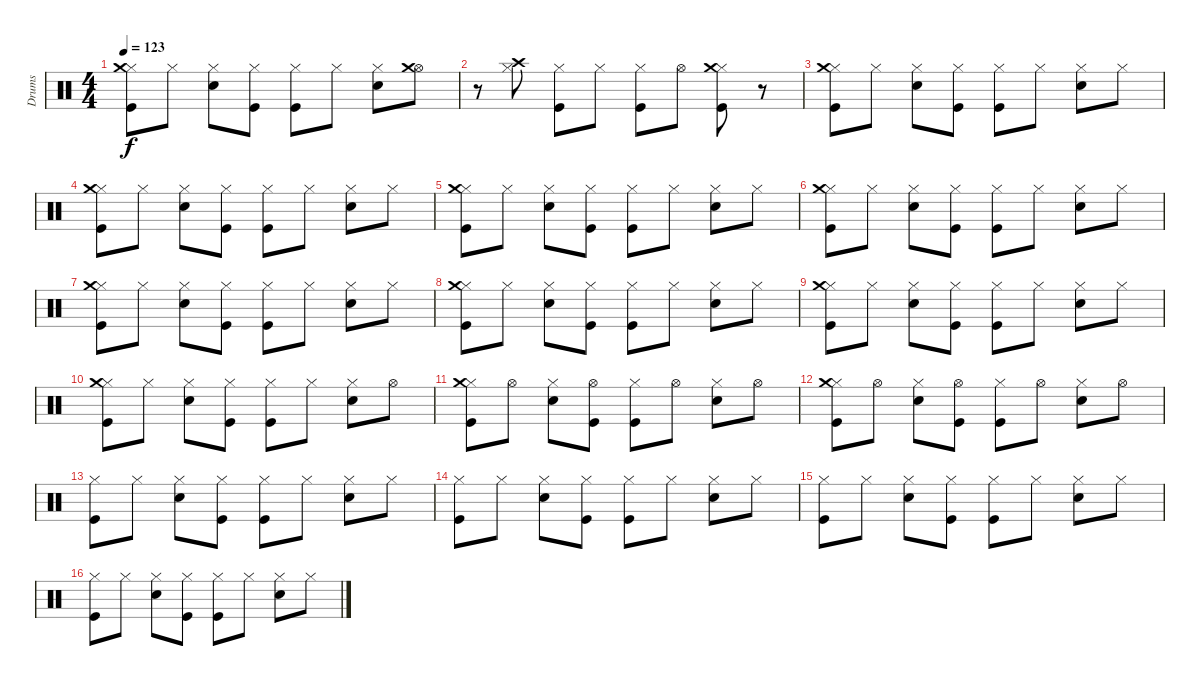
\track ("Drums" "Drums") {instrument percussion}
\staff {score}
\articulation defaults
\ts (4 4)
\tempo 123
\clef neutral
\ks c
("Hi-Hat (closed)" "Crash medium (hit)" "Kick (hit)").8{dy f} "Hi-Hat (closed)".8 ("Hi-Hat (closed)" "Snare (hit) 2").8 ("Hi-Hat (closed)" "Kick (hit)").8 ("Hi-Hat (closed)" "Kick (hit)").8 "Hi-Hat (closed)".8 ("Hi-Hat (closed)" "Snare (hit) 2").8 ("Hi-Hat (open)" "Crash medium (hit)").8 |
r.8 ("Hi-Hat (closed)" "Crash high (hit)").8 ("Hi-Hat (closed)" "Kick (hit)").8 "Hi-Hat (closed)".8 ("Hi-Hat (closed)" "Kick (hit)").8 "Hi-Hat (open)".8 ("Hi-Hat (closed)" "Crash medium (hit)" "Kick (hit)").8 r.8 |
("Hi-Hat (closed)" "Crash medium (hit)" "Kick (hit)").8 "Hi-Hat (closed)".8 ("Hi-Hat (closed)" "Snare (hit) 2").8 ("Hi-Hat (closed)" "Kick (hit)").8 ("Hi-Hat (closed)" "Kick (hit)").8 "Hi-Hat (closed)".8 ("Hi-Hat (closed)" "Snare (hit) 2").8 "Hi-Hat (closed)".8 |
("Hi-Hat (closed)" "Crash medium (hit)" "Kick (hit)").8 "Hi-Hat (closed)".8 ("Hi-Hat (closed)" "Snare (hit) 2").8 ("Hi-Hat (closed)" "Kick (hit)").8 ("Hi-Hat (closed)" "Kick (hit)").8 "Hi-Hat (closed)".8 ("Hi-Hat (closed)" "Snare (hit) 2").8 "Hi-Hat (closed)".8 |
("Hi-Hat (closed)" "Crash medium (hit)" "Kick (hit)").8 "Hi-Hat (closed)".8 ("Hi-Hat (closed)" "Snare (hit) 2").8 ("Hi-Hat (closed)" "Kick (hit)").8 ("Hi-Hat (closed)" "Kick (hit)").8 "Hi-Hat (closed)".8 ("Hi-Hat (closed)" "Snare (hit) 2").8 "Hi-Hat (closed)".8 |
("Hi-Hat (closed)" "Crash medium (hit)" "Kick (hit)").8 "Hi-Hat (closed)".8 ("Hi-Hat (closed)" "Snare (hit) 2").8 ("Hi-Hat (closed)" "Kick (hit)").8 ("Hi-Hat (closed)" "Kick (hit)").8 "Hi-Hat (closed)".8 ("Hi-Hat (closed)" "Snare (hit) 2").8 "Hi-Hat (closed)".8 |
("Hi-Hat (closed)" "Crash medium (hit)" "Kick (hit)").8 "Hi-Hat (closed)".8 ("Hi-Hat (closed)" "Snare (hit) 2").8 ("Hi-Hat (closed)" "Kick (hit)").8 ("Hi-Hat (closed)" "Kick (hit)").8 "Hi-Hat (closed)".8 ("Hi-Hat (closed)" "Snare (hit) 2").8 "Hi-Hat (closed)".8 |
("Hi-Hat (closed)" "Crash medium (hit)" "Kick (hit)").8 "Hi-Hat (closed)".8 ("Hi-Hat (closed)" "Snare (hit) 2").8 ("Hi-Hat (closed)" "Kick (hit)").8 ("Hi-Hat (closed)" "Kick (hit)").8 "Hi-Hat (closed)".8 ("Hi-Hat (closed)" "Snare (hit) 2").8 "Hi-Hat (closed)".8 |
("Hi-Hat (closed)" "Crash medium (hit)" "Kick (hit)").8 "Hi-Hat (closed)".8 ("Hi-Hat (closed)" "Snare (hit) 2").8 ("Hi-Hat (closed)" "Kick (hit)").8 ("Hi-Hat (closed)" "Kick (hit)").8 "Hi-Hat (closed)".8 ("Hi-Hat (closed)" "Snare (hit) 2").8 "Hi-Hat (closed)".8 |
("Hi-Hat (closed)" "Crash medium (hit)" "Kick (hit)").8 "Hi-Hat (closed)".8 ("Hi-Hat (closed)" "Snare (hit) 2").8 ("Hi-Hat (closed)" "Kick (hit)").8 ("Hi-Hat (closed)" "Kick (hit)").8 "Hi-Hat (closed)".8 ("Hi-Hat (closed)" "Snare (hit) 2").8 "Hi-Hat (open)".8 |
("Hi-Hat (closed)" "Crash medium (hit)" "Kick (hit)").8 "Hi-Hat (open)".8 ("Hi-Hat (closed)" "Snare (hit) 2").8 ("Hi-Hat (open)" "Kick (hit)").8 ("Hi-Hat (closed)" "Kick (hit)").8 "Hi-Hat (open)".8 ("Hi-Hat (closed)" "Snare (hit) 2").8 "Hi-Hat (open)".8 |
("Hi-Hat (closed)" "Crash medium (hit)" "Kick (hit)").8 "Hi-Hat (open)".8 ("Hi-Hat (closed)" "Snare (hit) 2").8 ("Hi-Hat (open)" "Kick (hit)").8 ("Hi-Hat (closed)" "Kick (hit)").8 "Hi-Hat (open)".8 ("Hi-Hat (closed)" "Snare (hit) 2").8 "Hi-Hat (open)".8 |
("Hi-Hat (closed)" "Kick (hit)").8 "Hi-Hat (closed)".8 ("Hi-Hat (closed)" "Snare (hit) 2").8 ("Hi-Hat (closed)" "Kick (hit)").8 ("Hi-Hat (closed)" "Kick (hit)").8 "Hi-Hat (closed)".8 ("Hi-Hat (closed)" "Snare (hit) 2").8 "Hi-Hat (closed)".8 |
("Hi-Hat (closed)" "Kick (hit)").8 "Hi-Hat (closed)".8 ("Hi-Hat (closed)" "Snare (hit) 2").8 ("Hi-Hat (closed)" "Kick (hit)").8 ("Hi-Hat (closed)" "Kick (hit)").8 "Hi-Hat (closed)".8 ("Hi-Hat (closed)" "Snare (hit) 2").8 "Hi-Hat (closed)".8 |
("Hi-Hat (closed)" "Kick (hit)").8 "Hi-Hat (closed)".8 ("Hi-Hat (closed)" "Snare (hit) 2").8 ("Hi-Hat (closed)" "Kick (hit)").8 ("Hi-Hat (closed)" "Kick (hit)").8 "Hi-Hat (closed)".8 ("Hi-Hat (closed)" "Snare (hit) 2").8 "Hi-Hat (closed)".8 |
("Hi-Hat (closed)" "Kick (hit)").8 "Hi-Hat (closed)".8 ("Hi-Hat (closed)" "Snare (hit) 2").8 ("Hi-Hat (closed)" "Kick (hit)").8 ("Hi-Hat (closed)" "Kick (hit)").8 "Hi-Hat (closed)".8 ("Hi-Hat (closed)" "Snare (hit) 2").8 "Hi-Hat (closed)".8
